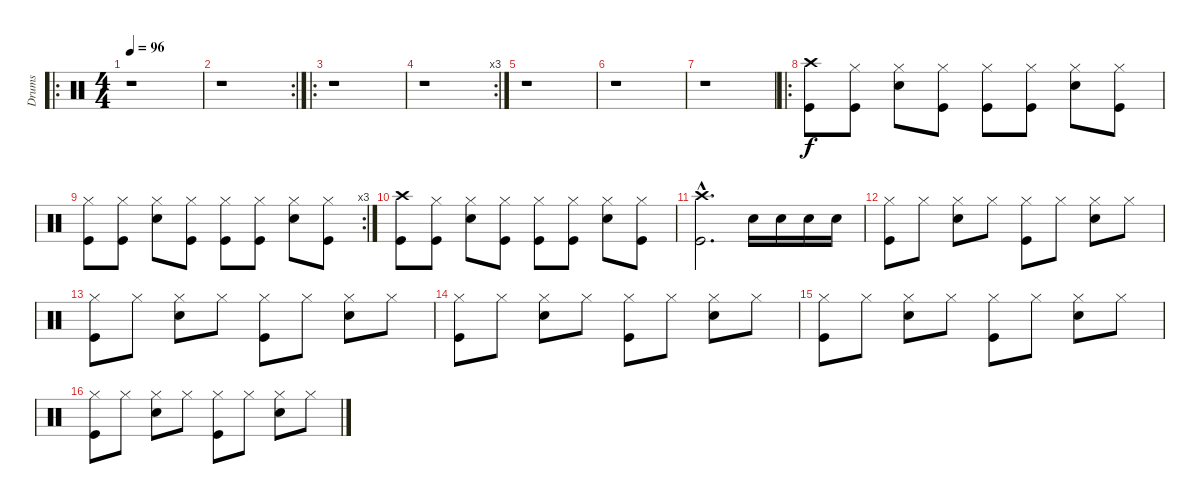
\track ("Drums" "Drums") {instrument percussion}
\staff {score}
\articulation defaults
\ro
\ts (4 4)
\tempo 96
\clef neutral
\ks c
r.1{dy f} |
\rc 2
r.1 |
\ro
r.1 |
\rc 3
r.1 |
r.1 |
r.1 |
r.1 |
\ro
("Crash high (hit)" "Kick (hit)").8 ("Hi-Hat (closed)" "Kick (hit)").8 ("Electric Snare (hit)" "Hi-Hat (closed)").8 ("Hi-Hat (closed)" "Kick (hit)").8 ("Hi-Hat (closed)" "Kick (hit)").8 ("Hi-Hat (closed)" "Kick (hit)").8 ("Electric Snare (hit)" "Hi-Hat (closed)").8 ("Hi-Hat (closed)" "Kick (hit)").8 |
\rc 3
("Hi-Hat (closed)" "Kick (hit)").8 ("Hi-Hat (closed)" "Kick (hit)").8 ("Electric Snare (hit)" "Hi-Hat (closed)").8 ("Hi-Hat (closed)" "Kick (hit)").8 ("Hi-Hat (closed)" "Kick (hit)").8 ("Hi-Hat (closed)" "Kick (hit)").8 ("Electric Snare (hit)" "Hi-Hat (closed)").8 ("Hi-Hat (closed)" "Kick (hit)").8 |
("Crash high (hit)" "Kick (hit)").8 ("Hi-Hat (closed)" "Kick (hit)").8 ("Electric Snare (hit)" "Hi-Hat (closed)").8 ("Hi-Hat (closed)" "Kick (hit)").8 ("Hi-Hat (closed)" "Kick (hit)").8 ("Hi-Hat (closed)" "Kick (hit)").8 ("Electric Snare (hit)" "Hi-Hat (closed)").8 ("Hi-Hat (closed)" "Kick (hit)").8 |
("Crash high (hit)"{hac} "Kick (hit)"{hac}).2{d} "Snare (hit) 2".16 "Snare (hit) 2".16 "Snare (hit) 2".16 "Snare (hit) 2".16 |
("Hi-Hat (closed)" "Kick (hit)").8 "Hi-Hat (closed)".8 ("Snare (hit) 2" "Hi-Hat (closed)").8 "Hi-Hat (closed)".8 ("Hi-Hat (closed)" "Kick (hit)").8 "Hi-Hat (closed)".8 ("Snare (hit) 2" "Hi-Hat (closed)").8 "Hi-Hat (closed)".8 |
("Hi-Hat (closed)" "Kick (hit)").8 "Hi-Hat (closed)".8 ("Snare (hit) 2" "Hi-Hat (closed)").8 "Hi-Hat (closed)".8 ("Hi-Hat (closed)" "Kick (hit)").8 "Hi-Hat (closed)".8 ("Snare (hit) 2" "Hi-Hat (closed)").8 "Hi-Hat (closed)".8 |
("Hi-Hat (closed)" "Kick (hit)").8 "Hi-Hat (closed)".8 ("Snare (hit) 2" "Hi-Hat (closed)").8 "Hi-Hat (closed)".8 ("Hi-Hat (closed)" "Kick (hit)").8 "Hi-Hat (closed)".8 ("Snare (hit) 2" "Hi-Hat (closed)").8 "Hi-Hat (closed)".8 |
("Hi-Hat (closed)" "Kick (hit)").8 "Hi-Hat (closed)".8 ("Snare (hit) 2" "Hi-Hat (closed)").8 "Hi-Hat (closed)".8 ("Hi-Hat (closed)" "Kick (hit)").8 "Hi-Hat (closed)".8 ("Snare (hit) 2" "Hi-Hat (closed)").8 "Hi-Hat (closed)".8 |
("Hi-Hat (closed)" "Kick (hit)").8 "Hi-Hat (closed)".8 ("Snare (hit) 2" "Hi-Hat (closed)").8 "Hi-Hat (closed)".8 ("Hi-Hat (closed)" "Kick (hit)").8 "Hi-Hat (closed)".8 ("Snare (hit) 2" "Hi-Hat (closed)").8 "Hi-Hat (closed)".8
